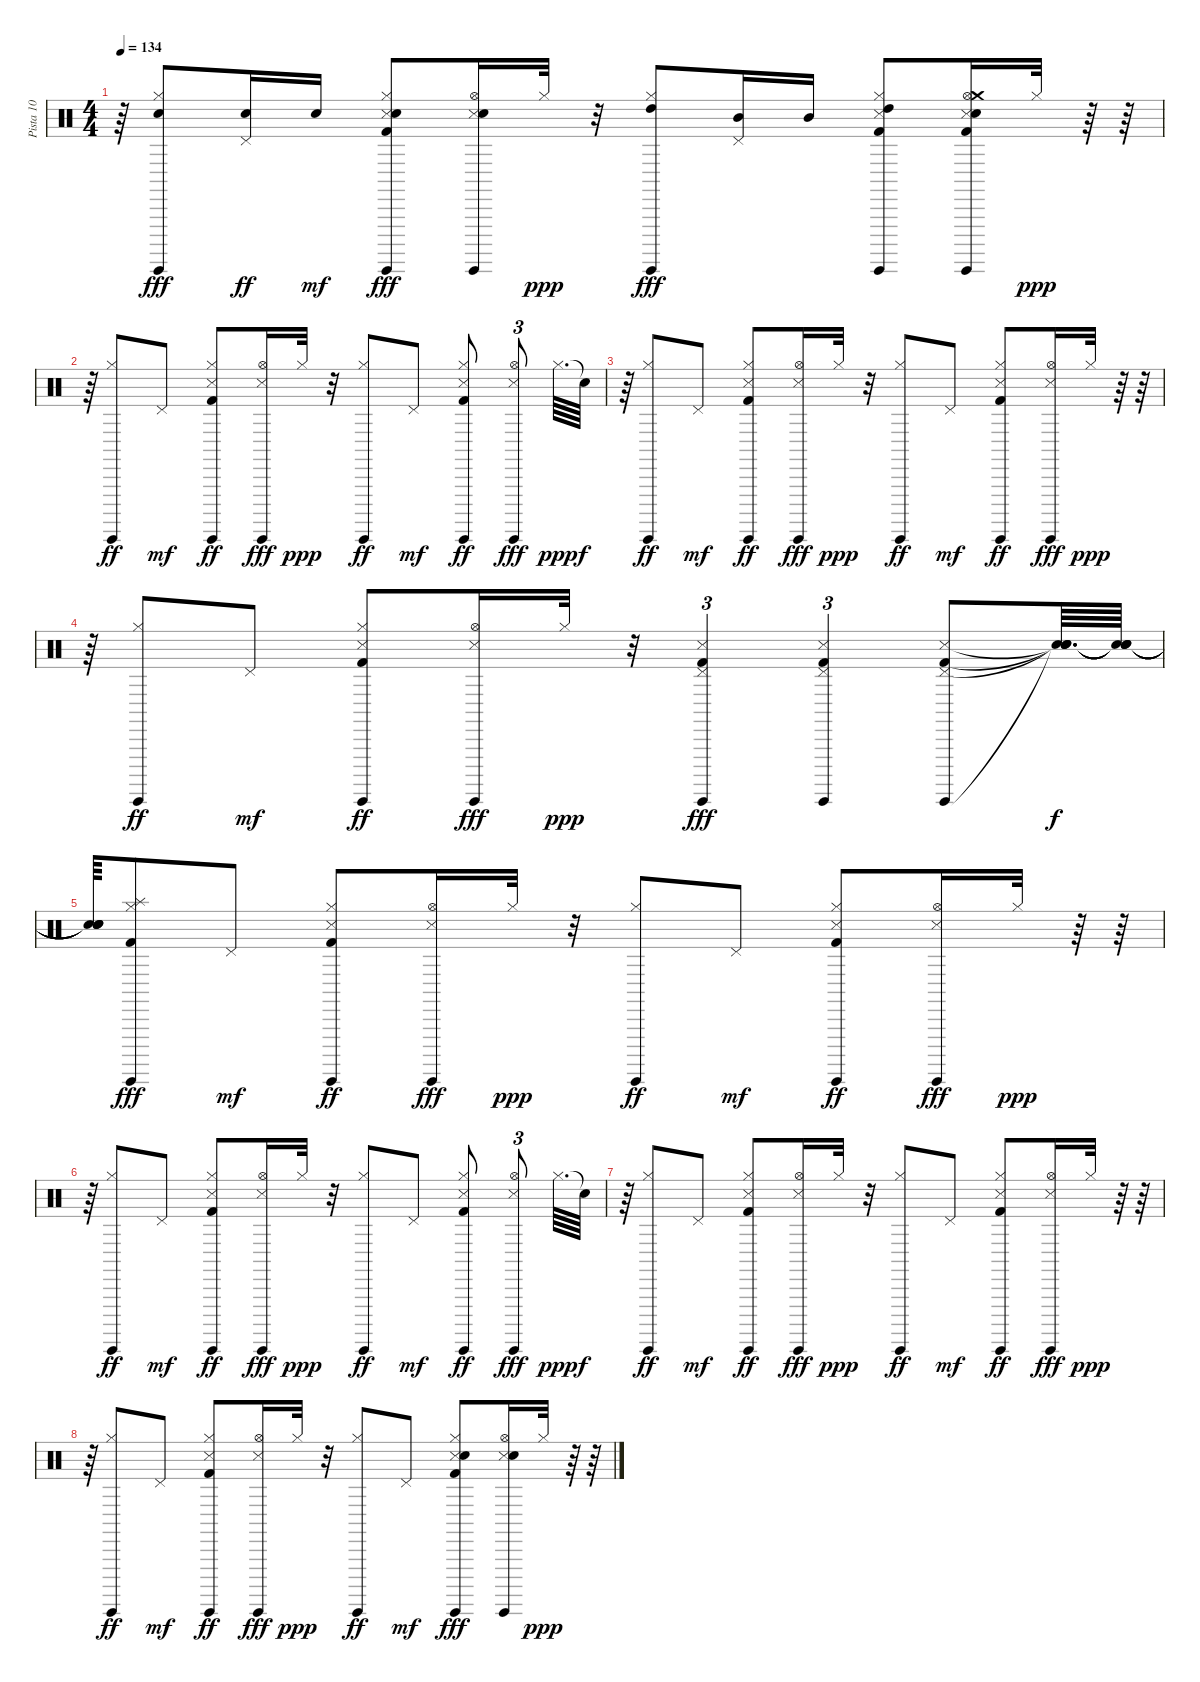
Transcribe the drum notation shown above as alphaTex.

\track ("Pista 10" "Pista 10") {instrument percussion}
\staff {score}
\articulation defaults
\ts (4 4)
\tempo 134
\clef neutral
\ks c
r.64{dy ppp} ("Guiro (hit)" "Hi-Hat (closed)" "Electric Snare (hit)").8{dy fff} ("Pedal Hi-Hat (hit)" "Electric Snare (hit)").16{dy ff} "Electric Snare (hit)".16{dy mf} ("Guiro (hit)" "Hi-Hat (closed)" "Snare (side stick) 3" "Kick (hit) 2" "Electric Snare (hit)").8{dy fff} ("Guiro (hit)" "Hi-Hat (open)" "Snare (side stick) 3" "Electric Snare (hit)").16 "Hi-Hat (closed)".32{dy ppp} r.32 ("Guiro (hit)" "Hi-Hat (closed)" "High Tom (hit)").8{dy fff} ("Pedal Hi-Hat (hit)" "Mid Tom (hit)").16 "Mid Tom (hit)".16 ("Guiro (hit)" "Hi-Hat (closed)" "Snare (side stick) 3" "Kick (hit) 2" "High Tom (hit)").8 ("Guiro (hit)" "Hi-Hat (open)" "Snare (side stick) 3" "Electric Snare (hit)" "Kick (hit) 2" "Crash medium (hit)").16 "Hi-Hat (closed)".32{dy ppp} r.64 r.64 |
r.64 ("Guiro (hit)" "Hi-Hat (closed)").8{dy ff} "Pedal Hi-Hat (hit)".8{dy mf} ("Guiro (hit)" "Hi-Hat (closed)" "Snare (side stick) 3" "Kick (hit) 2").8{dy ff} ("Guiro (hit)" "Hi-Hat (open)" "Snare (side stick) 3").16{dy fff} "Hi-Hat (closed)".32{dy ppp} r.32 ("Guiro (hit)" "Hi-Hat (closed)").8{dy ff} "Pedal Hi-Hat (hit)".8{dy mf} ("Guiro (hit)" "Hi-Hat (closed)" "Snare (side stick) 3" "Kick (hit) 2").8{dy ff} ("Guiro (hit)" "Hi-Hat (open)" "Snare (side stick) 3").8{tu (3 2) dy fff} "Hi-Hat (closed)".64{d dy ppp} "Snare (hit)"{t}.64{dy f} |
r.64 ("Guiro (hit)" "Hi-Hat (closed)").8{dy ff} "Pedal Hi-Hat (hit)".8{dy mf} ("Guiro (hit)" "Hi-Hat (closed)" "Snare (side stick) 3" "Kick (hit) 2").8{dy ff} ("Guiro (hit)" "Hi-Hat (open)" "Snare (side stick) 3").16{dy fff} "Hi-Hat (closed)".32{dy ppp} r.32 ("Guiro (hit)" "Hi-Hat (closed)").8{dy ff} "Pedal Hi-Hat (hit)".8{dy mf} ("Guiro (hit)" "Hi-Hat (closed)" "Snare (side stick) 3" "Kick (hit) 2").8{dy ff} ("Guiro (hit)" "Hi-Hat (open)" "Snare (side stick) 3").16{dy fff} "Hi-Hat (closed)".32{dy ppp} r.64 r.64 |
r.64 ("Guiro (hit)" "Hi-Hat (closed)").8{dy ff} "Pedal Hi-Hat (hit)".8{dy mf} ("Guiro (hit)" "Hi-Hat (closed)" "Snare (side stick) 3" "Kick (hit) 2").8{dy ff} ("Guiro (hit)" "Hi-Hat (open)" "Snare (side stick) 3").16{dy fff} "Hi-Hat (closed)".32{dy ppp} r.32 ("Snare (side stick) 3" "Kick (hit) 2" "Pedal Hi-Hat (hit)" "Guiro (hit)").4{tu (3 2) dy fff} ("Snare (side stick) 3" "Kick (hit) 2" "Pedal Hi-Hat (hit)" "Guiro (hit)").4{tu (3 2)} ("Snare (side stick) 3" "Kick (hit) 2" "Pedal Hi-Hat (hit)" "Guiro (hit)").8 ("Snare (hit)"{t} "Snare (hit)"{t} "Snare (hit)"{t} "Snare (hit)"{t}).64{d dy f} ("Snare (hit)"{t} "Snare (hit)"{t} "Snare (hit)"{t} "Snare (hit)"{t}).64 |
("Snare (hit)"{t} "Snare (hit)"{t} "Snare (hit)"{t} "Snare (hit)"{t}).64 ("Guiro (hit)" "Hi-Hat (closed)" "Splash (hit)" "Kick (hit) 2").8{dy fff} "Pedal Hi-Hat (hit)".8{dy mf} ("Guiro (hit)" "Hi-Hat (closed)" "Snare (side stick) 3" "Kick (hit) 2").8{dy ff} ("Guiro (hit)" "Hi-Hat (open)" "Snare (side stick) 3").16{dy fff} "Hi-Hat (closed)".32{dy ppp} r.32 ("Guiro (hit)" "Hi-Hat (closed)").8{dy ff} "Pedal Hi-Hat (hit)".8{dy mf} ("Guiro (hit)" "Hi-Hat (closed)" "Snare (side stick) 3" "Kick (hit) 2").8{dy ff} ("Guiro (hit)" "Hi-Hat (open)" "Snare (side stick) 3").16{dy fff} "Hi-Hat (closed)".32{dy ppp} r.64 r.64 |
r.64 ("Hi-Hat (closed)" "Guiro (hit)").8{dy ff} "Pedal Hi-Hat (hit)".8{dy mf} ("Hi-Hat (closed)" "Guiro (hit)" "Snare (side stick) 3" "Kick (hit) 2").8{dy ff} ("Hi-Hat (open)" "Guiro (hit)" "Snare (side stick) 3").16{dy fff} "Hi-Hat (closed)".32{dy ppp} r.32 ("Hi-Hat (closed)" "Guiro (hit)").8{dy ff} "Pedal Hi-Hat (hit)".8{dy mf} ("Hi-Hat (closed)" "Guiro (hit)" "Snare (side stick) 3" "Kick (hit) 2").8{dy ff} ("Hi-Hat (open)" "Guiro (hit)" "Snare (side stick) 3").8{tu (3 2) dy fff} "Hi-Hat (closed)".64{d dy ppp} "Snare (hit)"{t}.64{dy f} |
r.64 ("Hi-Hat (closed)" "Guiro (hit)").8{dy ff} "Pedal Hi-Hat (hit)".8{dy mf} ("Hi-Hat (closed)" "Guiro (hit)" "Snare (side stick) 3" "Kick (hit) 2").8{dy ff} ("Hi-Hat (open)" "Guiro (hit)" "Snare (side stick) 3").16{dy fff} "Hi-Hat (closed)".32{dy ppp} r.32 ("Hi-Hat (closed)" "Guiro (hit)").8{dy ff} "Pedal Hi-Hat (hit)".8{dy mf} ("Hi-Hat (closed)" "Guiro (hit)" "Snare (side stick) 3" "Kick (hit) 2").8{dy ff} ("Hi-Hat (open)" "Guiro (hit)" "Snare (side stick) 3").16{dy fff} "Hi-Hat (closed)".32{dy ppp} r.64 r.64 |
r.64 ("Hi-Hat (closed)" "Guiro (hit)").8{dy ff} "Pedal Hi-Hat (hit)".8{dy mf} ("Hi-Hat (closed)" "Guiro (hit)" "Snare (side stick) 3" "Kick (hit) 2").8{dy ff} ("Hi-Hat (open)" "Guiro (hit)" "Snare (side stick) 3").16{dy fff} "Hi-Hat (closed)".32{dy ppp} r.32 ("Hi-Hat (closed)" "Guiro (hit)").8{dy ff} "Pedal Hi-Hat (hit)".8{dy mf} ("Hi-Hat (closed)" "Guiro (hit)" "Snare (side stick) 3" "Kick (hit) 2" "Electric Snare (hit)").8{dy fff} ("Hi-Hat (open)" "Guiro (hit)" "Snare (side stick) 3" "Electric Snare (hit)").16 "Hi-Hat (closed)".32{dy ppp} r.64 r.64
